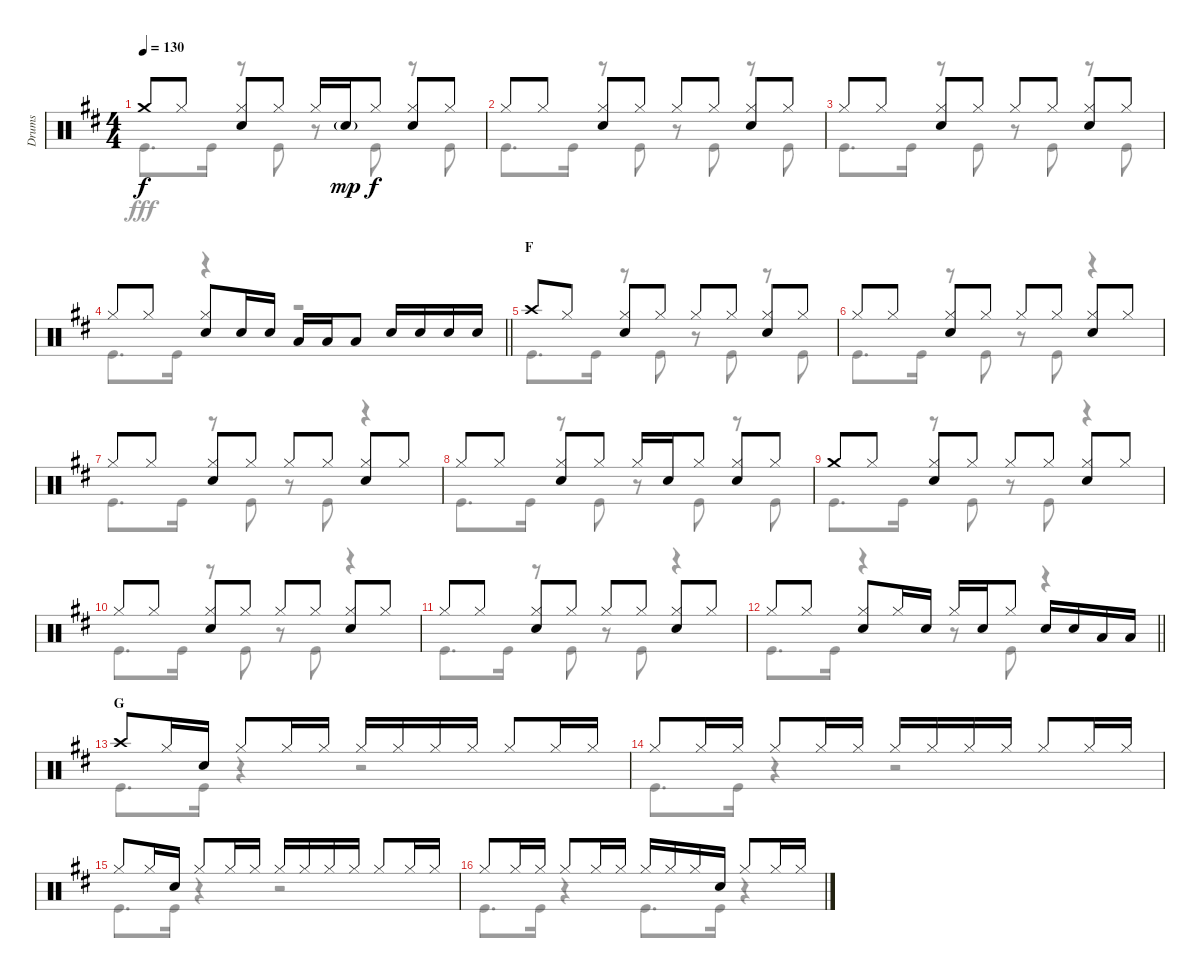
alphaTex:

\track ("Drums" "Drums") {instrument percussion}
\staff {score}
\articulation defaults
\voice
\ts (4 4)
\tempo 130
\clef neutral
\ks d "Crash medium (hit)".8{dy f} "Hi-Hat (closed)".8
("Hi-Hat (closed)" "Snare (hit) 2").8 "Hi-Hat (closed)".8 "Hi-Hat (closed)".16 "Snare (hit) 2"{g}.16{dy mp} "Hi-Hat (closed)".8{dy f} ("Hi-Hat (closed)" "Snare (hit) 2").8 "Hi-Hat (closed)".8 |
"Hi-Hat (closed)".8 "Hi-Hat (closed)".8 ("Hi-Hat (closed)" "Snare (hit) 2").8 "Hi-Hat (closed)".8 "Hi-Hat (closed)".8 "Hi-Hat (closed)".8 ("Hi-Hat (closed)" "Snare (hit) 2").8 "Hi-Hat (closed)".8 |
"Hi-Hat (closed)".8 "Hi-Hat (closed)".8 ("Hi-Hat (closed)" "Snare (hit) 2").8 "Hi-Hat (closed)".8 "Hi-Hat (closed)".8 "Hi-Hat (closed)".8 ("Hi-Hat (closed)" "Snare (hit) 2").8 "Hi-Hat (closed)".8 |
\barLineRight lightlight "Hi-Hat (closed)".8 "Hi-Hat (closed)".8
("Hi-Hat (closed)" "Snare (hit) 2").8 "Snare (hit) 2".16 "Snare (hit) 2".16 "Low Tom (hit)".16 "Low Tom (hit)".16 "Low Tom (hit)".8 "Snare (hit) 2".16 "Snare (hit) 2".16 "Snare (hit) 2".16 "Snare (hit) 2".16 |
\section ("" "F")
"Crash high (hit)".8 "Hi-Hat (closed)".8 ("Hi-Hat (closed)" "Snare (hit) 2").8 "Hi-Hat (closed)".8 "Hi-Hat (closed)".8 "Hi-Hat (closed)".8 ("Hi-Hat (closed)" "Snare (hit) 2").8 "Hi-Hat (closed)".8 |
"Hi-Hat (closed)".8 "Hi-Hat (closed)".8 ("Hi-Hat (closed)" "Snare (hit) 2").8 "Hi-Hat (closed)".8 "Hi-Hat (closed)".8 "Hi-Hat (closed)".8 ("Hi-Hat (closed)" "Snare (hit) 2").8 "Hi-Hat (closed)".8 |
"Hi-Hat (closed)".8 "Hi-Hat (closed)".8 ("Hi-Hat (closed)" "Snare (hit) 2").8 "Hi-Hat (closed)".8 "Hi-Hat (closed)".8 "Hi-Hat (closed)".8 ("Hi-Hat (closed)" "Snare (hit) 2").8 "Hi-Hat (closed)".8 |
"Hi-Hat (closed)".8 "Hi-Hat (closed)".8 ("Hi-Hat (closed)" "Snare (hit) 2").8 "Hi-Hat (closed)".8 "Hi-Hat (closed)".16 "Snare (hit) 2".16 "Hi-Hat (closed)".8 ("Hi-Hat (closed)" "Snare (hit) 2").8 "Hi-Hat (closed)".8 |
"Crash medium (hit)".8 "Hi-Hat (closed)".8 ("Hi-Hat (closed)" "Snare (hit) 2").8 "Hi-Hat (closed)".8 "Hi-Hat (closed)".8 "Hi-Hat (closed)".8 ("Hi-Hat (closed)" "Snare (hit) 2").8 "Hi-Hat (closed)".8 |
"Hi-Hat (closed)".8 "Hi-Hat (closed)".8 ("Hi-Hat (closed)" "Snare (hit) 2").8 "Hi-Hat (closed)".8 "Hi-Hat (closed)".8 "Hi-Hat (closed)".8 ("Hi-Hat (closed)" "Snare (hit) 2").8 "Hi-Hat (closed)".8 |
"Hi-Hat (closed)".8 "Hi-Hat (closed)".8 ("Hi-Hat (closed)" "Snare (hit) 2").8 "Hi-Hat (closed)".8 "Hi-Hat (closed)".8 "Hi-Hat (closed)".8 ("Hi-Hat (closed)" "Snare (hit) 2").8 "Hi-Hat (closed)".8 |
\barLineRight lightlight "Hi-Hat (closed)".8 "Hi-Hat (closed)".8
("Hi-Hat (closed)" "Snare (hit) 2").8 "Hi-Hat (closed)".16 "Snare (hit) 2".16 "Hi-Hat (closed)".16 "Snare (hit) 2".16 "Hi-Hat (closed)".8 "Snare (hit) 2".16 "Snare (hit) 2".16 "Low Tom (hit)".16 "Low Tom (hit)".16 |
\section ("" "G")
"Crash high (hit)".8 "Hi-Hat (closed)".16 "Snare (hit) 2".16 "Hi-Hat (closed)".8 "Hi-Hat (closed)".16 "Hi-Hat (closed)".16 "Hi-Hat (closed)".16 "Hi-Hat (closed)".16 "Hi-Hat (closed)".16 "Hi-Hat (closed)".16 "Hi-Hat (closed)".8 "Hi-Hat (closed)".16 "Hi-Hat (closed)".16 |
"Hi-Hat (closed)".8 "Hi-Hat (closed)".16 "Hi-Hat (closed)".16 "Hi-Hat (closed)".8 "Hi-Hat (closed)".16 "Hi-Hat (closed)".16 "Hi-Hat (closed)".16 "Hi-Hat (closed)".16 "Hi-Hat (closed)".16 "Hi-Hat (closed)".16 "Hi-Hat (closed)".8 "Hi-Hat (closed)".16 "Hi-Hat (closed)".16 |
"Hi-Hat (closed)".8 "Hi-Hat (closed)".16 "Snare (hit) 2".16 "Hi-Hat (closed)".8 "Hi-Hat (closed)".16 "Hi-Hat (closed)".16 "Hi-Hat (closed)".16 "Hi-Hat (closed)".16 "Hi-Hat (closed)".16 "Hi-Hat (closed)".16 "Hi-Hat (closed)".8 "Hi-Hat (closed)".16 "Hi-Hat (closed)".16 |
"Hi-Hat (closed)".8 "Hi-Hat (closed)".16 "Hi-Hat (closed)".16 "Hi-Hat (closed)".8 "Hi-Hat (closed)".16 "Hi-Hat (closed)".16 "Hi-Hat (closed)".16 "Hi-Hat (closed)".16 "Hi-Hat (closed)".16 "Snare (hit) 2".16 "Hi-Hat (closed)".8 "Hi-Hat (closed)".16 "Hi-Hat (closed)".16
\voice
\clef neutral
\ottava regular
\simile none
\ks d "Kick (hit)".8{d dy fff} "Kick (hit)".16
r.8 "Kick (hit)".8 r.8 "Kick (hit)".8 r.8 "Kick (hit)".8 |
"Kick (hit)".8{d} "Kick (hit)".16 r.8 "Kick (hit)".8 r.8 "Kick (hit)".8 r.8 "Kick (hit)".8 |
"Kick (hit)".8{d} "Kick (hit)".16 r.8 "Kick (hit)".8 r.8 "Kick (hit)".8 r.8 "Kick (hit)".8 |
\barLineRight lightlight "Kick (hit)".8{d} "Kick (hit)".16
r.4 r.2 |
"Kick (hit)".8{d} "Kick (hit)".16 r.8 "Kick (hit)".8 r.8 "Kick (hit)".8 r.8 "Kick (hit)".8 |
"Kick (hit)".8{d} "Kick (hit)".16 r.8 "Kick (hit)".8 r.8 "Kick (hit)".8 r.4 |
"Kick (hit)".8{d} "Kick (hit)".16 r.8 "Kick (hit)".8 r.8 "Kick (hit)".8 r.4 |
"Kick (hit)".8{d} "Kick (hit)".16 r.8 "Kick (hit)".8 r.8 "Kick (hit)".8 r.8 "Kick (hit)".8 |
"Kick (hit)".8{d} "Kick (hit)".16 r.8 "Kick (hit)".8 r.8 "Kick (hit)".8 r.4 |
"Kick (hit)".8{d} "Kick (hit)".16 r.8 "Kick (hit)".8 r.8 "Kick (hit)".8 r.4 |
"Kick (hit)".8{d} "Kick (hit)".16 r.8 "Kick (hit)".8 r.8 "Kick (hit)".8 r.4 |
\barLineRight lightlight "Kick (hit)".8{d} "Kick (hit)".16
r.4 r.8 "Kick (hit)".8 r.4 |
"Kick (hit)".8{d} "Kick (hit)".16 r.4 r.2 |
"Kick (hit)".8{d} "Kick (hit)".16 r.4 r.2 |
"Kick (hit)".8{d} "Kick (hit)".16 r.4 r.2 |
"Kick (hit)".8{d} "Kick (hit)".16 r.4 "Kick (hit)".8{d} "Kick (hit)".16 r.4
